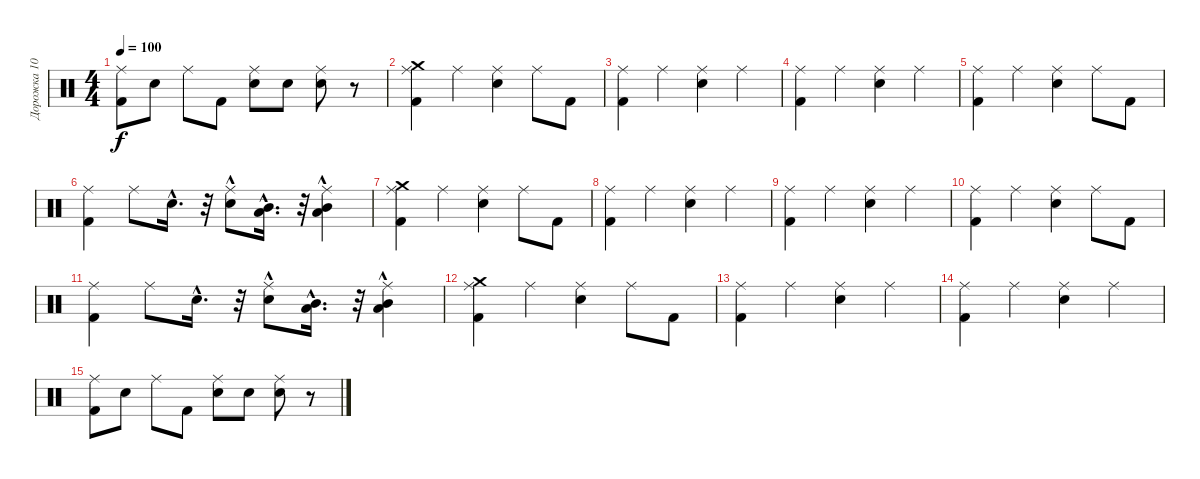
\track ("Дорожка 10" "Дорожка 10") {instrument percussion}
\staff {score}
\articulation defaults
\ts (4 4)
\tempo 100
\clef neutral
\ks c
("Ride (middle)" "Kick (hit) 2").8{dy f} "Snare (hit) 2".8 "Ride (middle)".8 "Kick (hit) 2".8 ("Snare (hit) 2" "Ride (middle)").8 "Snare (hit) 2".8 ("Snare (hit) 2" "Ride (middle)").8 r.8 |
("Ride (middle)" "Kick (hit) 2" "Crash medium (hit)").4 "Ride (middle)".4 ("Snare (hit) 2" "Ride (middle)").4 "Ride (middle)".8 "Kick (hit) 2".8 |
("Ride (middle)" "Kick (hit) 2").4 "Ride (middle)".4 ("Ride (middle)" "Snare (hit) 2").4 "Ride (middle)".4 |
("Ride (middle)" "Kick (hit) 2").4 "Ride (middle)".4 ("Ride (middle)" "Snare (hit) 2").4 "Ride (middle)".4 |
("Ride (middle)" "Kick (hit) 2").4 "Ride (middle)".4 ("Snare (hit) 2" "Ride (middle)").4 "Ride (middle)".8 "Kick (hit) 2".8 |
("Ride (middle)" "Kick (hit) 2").4 "Ride (middle)".8 "Snare (hit) 2"{hac}.16{d} r.32 ("Snare (hit) 2"{hac} "Ride (middle)").8 ("Mid Tom (hit)"{hac} "Low Tom (hit)"{hac}).16{d} r.32 ("Low Tom (hit)" "Mid Tom (hit)"{hac} "Ride (middle)").4 |
("Ride (middle)" "Kick (hit) 2" "Crash medium (hit)").4 "Ride (middle)".4 ("Snare (hit) 2" "Ride (middle)").4 "Ride (middle)".8 "Kick (hit) 2".8 |
("Ride (middle)" "Kick (hit) 2").4 "Ride (middle)".4 ("Ride (middle)" "Snare (hit) 2").4 "Ride (middle)".4 |
("Ride (middle)" "Kick (hit) 2").4 "Ride (middle)".4 ("Ride (middle)" "Snare (hit) 2").4 "Ride (middle)".4 |
("Ride (middle)" "Kick (hit) 2").4 "Ride (middle)".4 ("Snare (hit) 2" "Ride (middle)").4 "Ride (middle)".8 "Kick (hit) 2".8 |
("Ride (middle)" "Kick (hit) 2").4 "Ride (middle)".8 "Snare (hit) 2"{hac}.16{d} r.32 ("Snare (hit) 2"{hac} "Ride (middle)").8 ("Mid Tom (hit)"{hac} "Low Tom (hit)"{hac}).16{d} r.32 ("Low Tom (hit)" "Mid Tom (hit)"{hac} "Ride (middle)").4 |
("Ride (middle)" "Kick (hit) 2" "Crash medium (hit)").4 "Ride (middle)".4 ("Snare (hit) 2" "Ride (middle)").4 "Ride (middle)".8 "Kick (hit) 2".8 |
("Ride (middle)" "Kick (hit) 2").4 "Ride (middle)".4 ("Ride (middle)" "Snare (hit) 2").4 "Ride (middle)".4 |
("Ride (middle)" "Kick (hit) 2").4 "Ride (middle)".4 ("Ride (middle)" "Snare (hit) 2").4 "Ride (middle)".4 |
("Ride (middle)" "Kick (hit) 2").8 "Snare (hit) 2".8 "Ride (middle)".8 "Kick (hit) 2".8 ("Snare (hit) 2" "Ride (middle)").8 "Snare (hit) 2".8 ("Snare (hit) 2" "Ride (middle)").8 r.8
